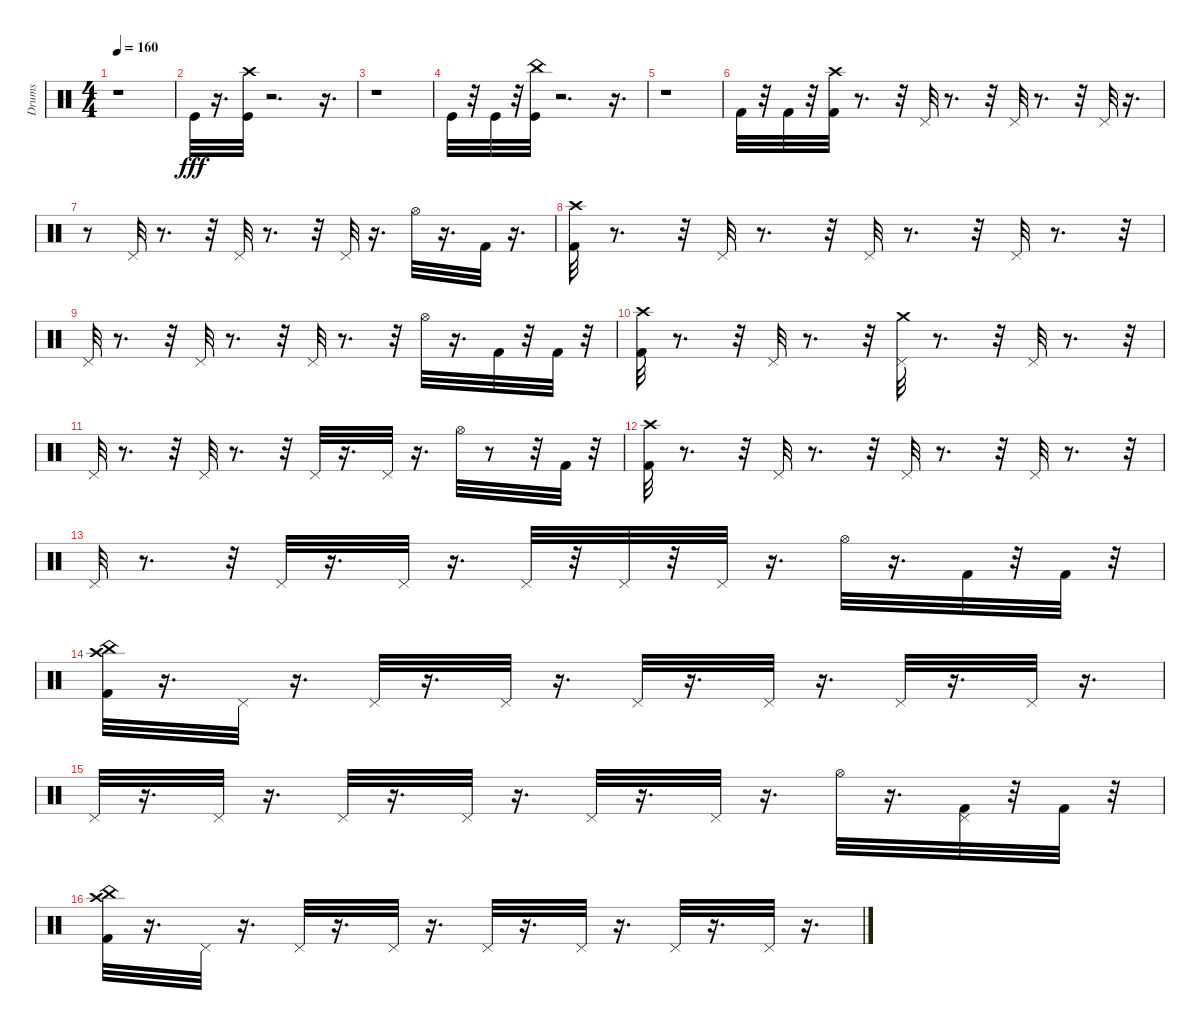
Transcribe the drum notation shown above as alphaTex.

\track ("Drums" "Drums") {instrument percussion}
\staff {score}
\articulation defaults
\ts (4 4)
\tempo 160
\clef neutral
\ks c
r.1{dy fff} |
"Kick (hit)".32 r.16{d} ("Crash high (hit)" "Kick (hit)").32 r.2{d} r.16{d} |
r.1 |
"Kick (hit)".32 r.32 "Kick (hit)".32 r.32 ("China (hit)" "Kick (hit)").32 r.2{d} r.16{d} |
r.1 |
"Kick (hit) 2".32 r.32 "Kick (hit) 2".32 r.32 ("Crash high (hit)" "Kick (hit) 2").32 r.8{d} r.32 "Pedal Hi-Hat (hit)".32 r.8{d} r.32 "Pedal Hi-Hat (hit)".32 r.8{d} r.32 "Pedal Hi-Hat (hit)".32 r.16{d} |
r.8 "Pedal Hi-Hat (hit)".32 r.8{d} r.32 "Pedal Hi-Hat (hit)".32 r.8{d} r.32 "Pedal Hi-Hat (hit)".32 r.16{d} "Hi-Hat (open)".32 r.16{d} "Kick (hit) 2".32 r.16{d} |
("Crash high (hit)" "Kick (hit) 2").32 r.8{d} r.32 "Pedal Hi-Hat (hit)".32 r.8{d} r.32 "Pedal Hi-Hat (hit)".32 r.8{d} r.32 "Pedal Hi-Hat (hit)".32 r.8{d} r.32 |
"Pedal Hi-Hat (hit)".32 r.8{d} r.32 "Pedal Hi-Hat (hit)".32 r.8{d} r.32 "Pedal Hi-Hat (hit)".32 r.8{d} r.32 "Hi-Hat (open)".32 r.16{d} "Kick (hit) 2".32 r.32 "Kick (hit) 2".32 r.32 |
("Crash high (hit)" "Kick (hit) 2").32 r.8{d} r.32 "Pedal Hi-Hat (hit)".32 r.8{d} r.32 ("Crash medium (hit)" "Pedal Hi-Hat (hit)").32 r.8{d} r.32 "Pedal Hi-Hat (hit)".32 r.8{d} r.32 |
"Pedal Hi-Hat (hit)".32 r.8{d} r.32 "Pedal Hi-Hat (hit)".32 r.8{d} r.32 "Pedal Hi-Hat (hit)".32 r.16{d} "Pedal Hi-Hat (hit)".32 r.16{d} "Hi-Hat (open)".32 r.8 r.32 "Kick (hit) 2".32 r.32 |
("Crash high (hit)" "Kick (hit) 2").32 r.8{d} r.32 "Pedal Hi-Hat (hit)".32 r.8{d} r.32 "Pedal Hi-Hat (hit)".32 r.8{d} r.32 "Pedal Hi-Hat (hit)".32 r.8{d} r.32 |
"Pedal Hi-Hat (hit)".32 r.8{d} r.32 "Pedal Hi-Hat (hit)".32 r.16{d} "Pedal Hi-Hat (hit)".32 r.16{d} "Pedal Hi-Hat (hit)".32 r.32 "Pedal Hi-Hat (hit)".32 r.32 "Pedal Hi-Hat (hit)".32 r.16{d} "Hi-Hat (open)".32 r.16{d} "Kick (hit) 2".32 r.32 "Kick (hit) 2".32 r.32 |
("Kick (hit) 2" "Crash high (hit)" "China (hit)").32 r.16{d} "Pedal Hi-Hat (hit)".32 r.16{d} "Pedal Hi-Hat (hit)".32 r.16{d} "Pedal Hi-Hat (hit)".32 r.16{d} "Pedal Hi-Hat (hit)".32 r.16{d} "Pedal Hi-Hat (hit)".32 r.16{d} "Pedal Hi-Hat (hit)".32 r.16{d} "Pedal Hi-Hat (hit)".32 r.16{d} |
"Pedal Hi-Hat (hit)".32 r.16{d} "Pedal Hi-Hat (hit)".32 r.16{d} "Pedal Hi-Hat (hit)".32 r.16{d} "Pedal Hi-Hat (hit)".32 r.16{d} "Pedal Hi-Hat (hit)".32 r.16{d} "Pedal Hi-Hat (hit)".32 r.16{d} "Hi-Hat (open)".32 r.16{d} ("Kick (hit) 2" "Pedal Hi-Hat (hit)").32 r.32 "Kick (hit) 2".32 r.32 |
("Kick (hit) 2" "China (hit)" "Crash high (hit)").32 r.16{d} "Pedal Hi-Hat (hit)".32 r.16{d} "Pedal Hi-Hat (hit)".32 r.16{d} "Pedal Hi-Hat (hit)".32 r.16{d} "Pedal Hi-Hat (hit)".32 r.16{d} "Pedal Hi-Hat (hit)".32 r.16{d} "Pedal Hi-Hat (hit)".32 r.16{d} "Pedal Hi-Hat (hit)".32 r.16{d}
